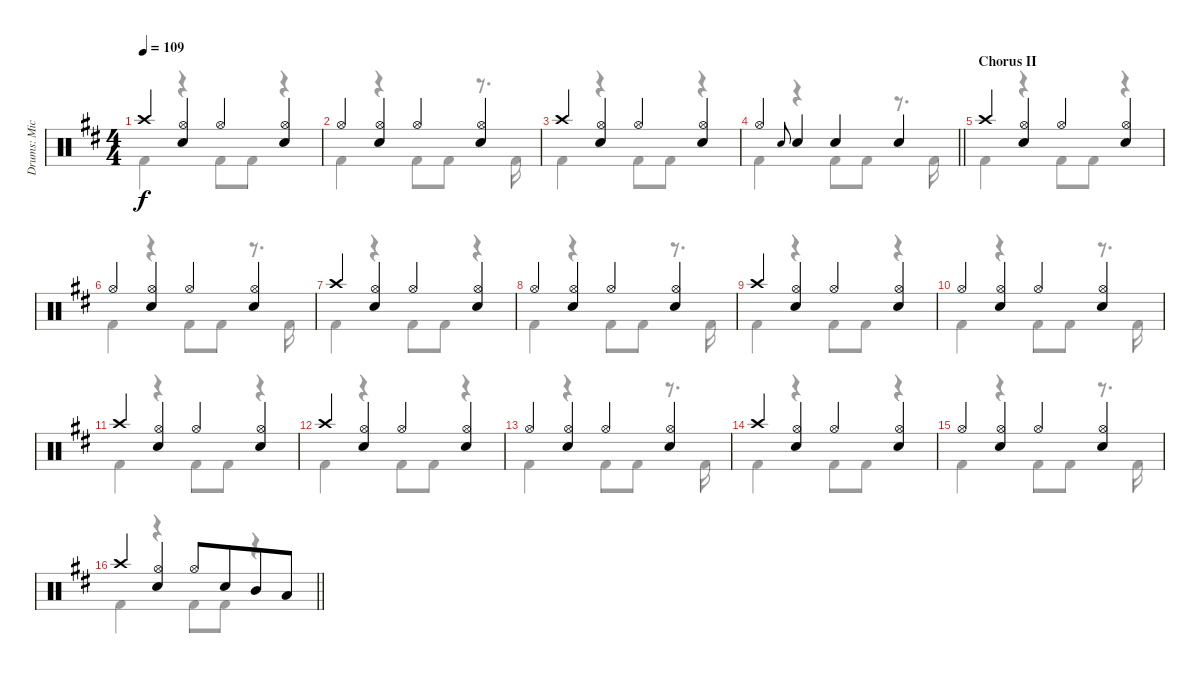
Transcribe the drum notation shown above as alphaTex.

\track ("Drums: Mick" "Drums: Mic") {instrument percussion}
\staff {score}
\articulation defaults
\voice
\ts (4 4)
\tempo 109
\clef neutral
\ks d "Crash high (hit)".4{dy f}
("Hi-Hat (open)" "Snare (hit) 2").4 "Hi-Hat (open)".4 ("Hi-Hat (open)" "Snare (hit) 2").4 |
"Hi-Hat (open)".4 ("Hi-Hat (open)" "Snare (hit) 2").4 "Hi-Hat (open)".4 ("Hi-Hat (open)" "Snare (hit) 2").4 |
"Crash high (hit)".4 ("Hi-Hat (open)" "Snare (hit) 2").4 "Hi-Hat (open)".4 ("Hi-Hat (open)" "Snare (hit) 2").4 |
\barLineRight lightlight "Hi-Hat (open)".4 "Electric Snare (hit)".8{gr onbeat} "Snare (hit) 2".4 "Snare (hit) 2".4 "Snare (hit) 2".4
|
\section ("" "Chorus II")
"Crash high (hit)".4 ("Hi-Hat (open)" "Snare (hit) 2").4 "Hi-Hat (open)".4 ("Hi-Hat (open)" "Snare (hit) 2").4 |
"Hi-Hat (open)".4 ("Hi-Hat (open)" "Snare (hit) 2").4 "Hi-Hat (open)".4 ("Hi-Hat (open)" "Snare (hit) 2").4 |
"Crash high (hit)".4 ("Hi-Hat (open)" "Snare (hit) 2").4 "Hi-Hat (open)".4 ("Hi-Hat (open)" "Snare (hit) 2").4 |
"Hi-Hat (open)".4 ("Hi-Hat (open)" "Snare (hit) 2").4 "Hi-Hat (open)".4 ("Hi-Hat (open)" "Snare (hit) 2").4 |
"Crash high (hit)".4 ("Hi-Hat (open)" "Snare (hit) 2").4 "Hi-Hat (open)".4 ("Hi-Hat (open)" "Snare (hit) 2").4 |
"Hi-Hat (open)".4 ("Hi-Hat (open)" "Snare (hit) 2").4 "Hi-Hat (open)".4 ("Hi-Hat (open)" "Snare (hit) 2").4 |
"Crash high (hit)".4 ("Hi-Hat (open)" "Snare (hit) 2").4 "Hi-Hat (open)".4 ("Hi-Hat (open)" "Snare (hit) 2").4 |
"Crash high (hit)".4 ("Hi-Hat (open)" "Snare (hit) 2").4 "Hi-Hat (open)".4 ("Hi-Hat (open)" "Snare (hit) 2").4 |
"Hi-Hat (open)".4 ("Hi-Hat (open)" "Snare (hit) 2").4 "Hi-Hat (open)".4 ("Hi-Hat (open)" "Snare (hit) 2").4 |
"Crash high (hit)".4 ("Hi-Hat (open)" "Snare (hit) 2").4 "Hi-Hat (open)".4 ("Hi-Hat (open)" "Snare (hit) 2").4 |
"Hi-Hat (open)".4 ("Hi-Hat (open)" "Snare (hit) 2").4 "Hi-Hat (open)".4 ("Hi-Hat (open)" "Snare (hit) 2").4 |
\barLineRight lightlight "Crash high (hit)".4
("Hi-Hat (open)" "Snare (hit) 2").4 "Hi-Hat (open)".8 "Snare (hit) 2".8{beam merge} "Mid Tom (hit)".8 "Low Tom (hit)".8
\voice
\clef neutral
\ottava regular
\simile none
\ks d "Kick (hit) 2".4{dy f}
r.4 "Kick (hit) 2".8 "Kick (hit) 2".8 r.4 |
"Kick (hit) 2".4 r.4 "Kick (hit) 2".8 "Kick (hit) 2".8 r.8{d} "Kick (hit) 2".16 |
"Kick (hit) 2".4 r.4 "Kick (hit) 2".8 "Kick (hit) 2".8 r.4 |
\barLineRight lightlight "Kick (hit) 2".4
r.4 "Kick (hit) 2".8 "Kick (hit) 2".8 r.8{d} "Kick (hit) 2".16 |
"Kick (hit) 2".4 r.4 "Kick (hit) 2".8 "Kick (hit) 2".8 r.4 |
"Kick (hit) 2".4 r.4 "Kick (hit) 2".8 "Kick (hit) 2".8 r.8{d} "Kick (hit) 2".16 |
"Kick (hit) 2".4 r.4 "Kick (hit) 2".8 "Kick (hit) 2".8 r.4 |
"Kick (hit) 2".4 r.4 "Kick (hit) 2".8 "Kick (hit) 2".8 r.8{d} "Kick (hit) 2".16 |
"Kick (hit) 2".4 r.4 "Kick (hit) 2".8 "Kick (hit) 2".8 r.4 |
"Kick (hit) 2".4 r.4 "Kick (hit) 2".8 "Kick (hit) 2".8 r.8{d} "Kick (hit) 2".16 |
"Kick (hit) 2".4 r.4 "Kick (hit) 2".8 "Kick (hit) 2".8 r.4 |
"Kick (hit) 2".4 r.4 "Kick (hit) 2".8 "Kick (hit) 2".8 r.4 |
"Kick (hit) 2".4 r.4 "Kick (hit) 2".8 "Kick (hit) 2".8 r.8{d} "Kick (hit) 2".16 |
"Kick (hit) 2".4 r.4 "Kick (hit) 2".8 "Kick (hit) 2".8 r.4 |
"Kick (hit) 2".4 r.4 "Kick (hit) 2".8 "Kick (hit) 2".8 r.8{d} "Kick (hit) 2".16 |
\barLineRight lightlight "Kick (hit) 2".4
r.4 "Kick (hit) 2".8 "Kick (hit) 2".8 r.4
